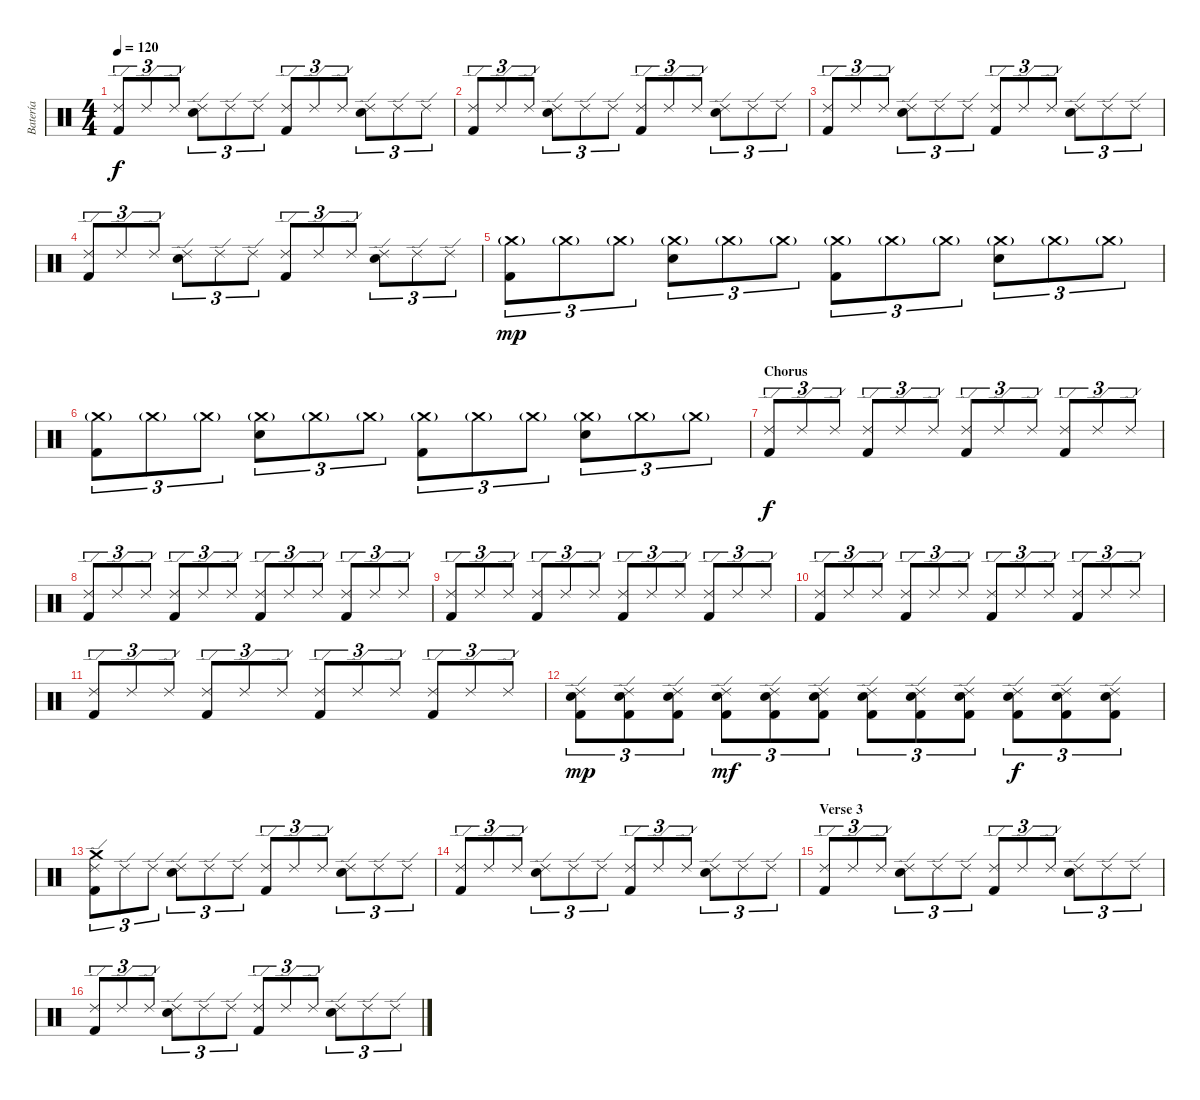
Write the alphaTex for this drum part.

\track ("Batería" "Batería") {instrument percussion}
\staff {score}
\articulation defaults
\ts (4 4)
\tempo 120
\clef neutral
\ks c
("Ride (edge) 2" "Kick (hit) 2").8{tu (3 2) dy f} "Ride (edge) 2".8{tu (3 2)} "Ride (edge) 2".8{tu (3 2)} ("Ride (edge) 2" "Electric Snare (hit)").8{tu (3 2)} "Ride (edge) 2".8{tu (3 2)} "Ride (edge) 2".8{tu (3 2)} ("Ride (edge) 2" "Kick (hit) 2").8{tu (3 2)} "Ride (edge) 2".8{tu (3 2)} "Ride (edge) 2".8{tu (3 2)} ("Ride (edge) 2" "Electric Snare (hit)").8{tu (3 2)} "Ride (edge) 2".8{tu (3 2)} "Ride (edge) 2".8{tu (3 2)} |
("Ride (edge) 2" "Kick (hit) 2").8{tu (3 2)} "Ride (edge) 2".8{tu (3 2)} "Ride (edge) 2".8{tu (3 2)} ("Ride (edge) 2" "Electric Snare (hit)").8{tu (3 2)} "Ride (edge) 2".8{tu (3 2)} "Ride (edge) 2".8{tu (3 2)} ("Ride (edge) 2" "Kick (hit) 2").8{tu (3 2)} "Ride (edge) 2".8{tu (3 2)} "Ride (edge) 2".8{tu (3 2)} ("Ride (edge) 2" "Electric Snare (hit)").8{tu (3 2)} "Ride (edge) 2".8{tu (3 2)} "Ride (edge) 2".8{tu (3 2)} |
("Ride (edge) 2" "Kick (hit) 2").8{tu (3 2)} "Ride (edge) 2".8{tu (3 2)} "Ride (edge) 2".8{tu (3 2)} ("Ride (edge) 2" "Electric Snare (hit)").8{tu (3 2)} "Ride (edge) 2".8{tu (3 2)} "Ride (edge) 2".8{tu (3 2)} ("Ride (edge) 2" "Kick (hit) 2").8{tu (3 2)} "Ride (edge) 2".8{tu (3 2)} "Ride (edge) 2".8{tu (3 2)} ("Ride (edge) 2" "Electric Snare (hit)").8{tu (3 2)} "Ride (edge) 2".8{tu (3 2)} "Ride (edge) 2".8{tu (3 2)} |
("Ride (edge) 2" "Kick (hit) 2").8{tu (3 2)} "Ride (edge) 2".8{tu (3 2)} "Ride (edge) 2".8{tu (3 2)} ("Ride (edge) 2" "Electric Snare (hit)").8{tu (3 2)} "Ride (edge) 2".8{tu (3 2)} "Ride (edge) 2".8{tu (3 2)} ("Ride (edge) 2" "Kick (hit) 2").8{tu (3 2)} "Ride (edge) 2".8{tu (3 2)} "Ride (edge) 2".8{tu (3 2)} ("Ride (edge) 2" "Electric Snare (hit)").8{tu (3 2)} "Ride (edge) 2".8{tu (3 2)} "Ride (edge) 2".8{tu (3 2)} |
("Crash medium (hit)"{g} "Kick (hit) 2").8{tu (3 2) dy mp} "Crash medium (hit)"{g}.8{tu (3 2)} "Crash medium (hit)"{g}.8{tu (3 2)} ("Crash medium (hit)"{g} "Electric Snare (hit)").8{tu (3 2)} "Crash medium (hit)"{g}.8{tu (3 2)} "Crash medium (hit)"{g}.8{tu (3 2)} ("Crash medium (hit)"{g} "Kick (hit) 2").8{tu (3 2)} "Crash medium (hit)"{g}.8{tu (3 2)} "Crash medium (hit)"{g}.8{tu (3 2)} ("Crash medium (hit)"{g} "Electric Snare (hit)").8{tu (3 2)} "Crash medium (hit)"{g}.8{tu (3 2)} "Crash medium (hit)"{g}.8{tu (3 2)} |
("Crash medium (hit)"{g} "Kick (hit) 2").8{tu (3 2)} "Crash medium (hit)"{g}.8{tu (3 2)} "Crash medium (hit)"{g}.8{tu (3 2)} ("Crash medium (hit)"{g} "Electric Snare (hit)").8{tu (3 2)} "Crash medium (hit)"{g}.8{tu (3 2)} "Crash medium (hit)"{g}.8{tu (3 2)} ("Crash medium (hit)"{g} "Kick (hit) 2").8{tu (3 2)} "Crash medium (hit)"{g}.8{tu (3 2)} "Crash medium (hit)"{g}.8{tu (3 2)} ("Crash medium (hit)"{g} "Electric Snare (hit)").8{tu (3 2)} "Crash medium (hit)"{g}.8{tu (3 2)} "Crash medium (hit)"{g}.8{tu (3 2)} |
\section ("" "Chorus")
("Ride (edge) 2" "Kick (hit) 2").8{tu (3 2) dy f} "Ride (edge) 2".8{tu (3 2)} "Ride (edge) 2".8{tu (3 2)} ("Ride (edge) 2" "Kick (hit) 2").8{tu (3 2)} "Ride (edge) 2".8{tu (3 2)} "Ride (edge) 2".8{tu (3 2)} ("Ride (edge) 2" "Kick (hit) 2").8{tu (3 2)} "Ride (edge) 2".8{tu (3 2)} "Ride (edge) 2".8{tu (3 2)} ("Ride (edge) 2" "Kick (hit) 2").8{tu (3 2)} "Ride (edge) 2".8{tu (3 2)} "Ride (edge) 2".8{tu (3 2)} |
("Ride (edge) 2" "Kick (hit) 2").8{tu (3 2)} "Ride (edge) 2".8{tu (3 2)} "Ride (edge) 2".8{tu (3 2)} ("Ride (edge) 2" "Kick (hit) 2").8{tu (3 2)} "Ride (edge) 2".8{tu (3 2)} "Ride (edge) 2".8{tu (3 2)} ("Ride (edge) 2" "Kick (hit) 2").8{tu (3 2)} "Ride (edge) 2".8{tu (3 2)} "Ride (edge) 2".8{tu (3 2)} ("Ride (edge) 2" "Kick (hit) 2").8{tu (3 2)} "Ride (edge) 2".8{tu (3 2)} "Ride (edge) 2".8{tu (3 2)} |
("Ride (edge) 2" "Kick (hit) 2").8{tu (3 2)} "Ride (edge) 2".8{tu (3 2)} "Ride (edge) 2".8{tu (3 2)} ("Ride (edge) 2" "Kick (hit) 2").8{tu (3 2)} "Ride (edge) 2".8{tu (3 2)} "Ride (edge) 2".8{tu (3 2)} ("Ride (edge) 2" "Kick (hit) 2").8{tu (3 2)} "Ride (edge) 2".8{tu (3 2)} "Ride (edge) 2".8{tu (3 2)} ("Ride (edge) 2" "Kick (hit) 2").8{tu (3 2)} "Ride (edge) 2".8{tu (3 2)} "Ride (edge) 2".8{tu (3 2)} |
("Ride (edge) 2" "Kick (hit) 2").8{tu (3 2)} "Ride (edge) 2".8{tu (3 2)} "Ride (edge) 2".8{tu (3 2)} ("Ride (edge) 2" "Kick (hit) 2").8{tu (3 2)} "Ride (edge) 2".8{tu (3 2)} "Ride (edge) 2".8{tu (3 2)} ("Ride (edge) 2" "Kick (hit) 2").8{tu (3 2)} "Ride (edge) 2".8{tu (3 2)} "Ride (edge) 2".8{tu (3 2)} ("Ride (edge) 2" "Kick (hit) 2").8{tu (3 2)} "Ride (edge) 2".8{tu (3 2)} "Ride (edge) 2".8{tu (3 2)} |
("Ride (edge) 2" "Kick (hit) 2").8{tu (3 2)} "Ride (edge) 2".8{tu (3 2)} "Ride (edge) 2".8{tu (3 2)} ("Ride (edge) 2" "Kick (hit) 2").8{tu (3 2)} "Ride (edge) 2".8{tu (3 2)} "Ride (edge) 2".8{tu (3 2)} ("Ride (edge) 2" "Kick (hit) 2").8{tu (3 2)} "Ride (edge) 2".8{tu (3 2)} "Ride (edge) 2".8{tu (3 2)} ("Ride (edge) 2" "Kick (hit) 2").8{tu (3 2)} "Ride (edge) 2".8{tu (3 2)} "Ride (edge) 2".8{tu (3 2)} |
("Ride (edge) 2" "Electric Snare (hit)" "Kick (hit) 2").8{tu (3 2) dy mp} ("Ride (edge) 2" "Electric Snare (hit)" "Kick (hit) 2").8{tu (3 2)} ("Ride (edge) 2" "Electric Snare (hit)" "Kick (hit) 2").8{tu (3 2)} ("Ride (edge) 2" "Electric Snare (hit)" "Kick (hit) 2").8{tu (3 2) dy mf} ("Ride (edge) 2" "Electric Snare (hit)" "Kick (hit) 2").8{tu (3 2)} ("Ride (edge) 2" "Electric Snare (hit)" "Kick (hit) 2").8{tu (3 2)} ("Ride (edge) 2" "Electric Snare (hit)" "Kick (hit) 2").8{tu (3 2)} ("Ride (edge) 2" "Electric Snare (hit)" "Kick (hit) 2").8{tu (3 2)} ("Ride (edge) 2" "Electric Snare (hit)" "Kick (hit) 2").8{tu (3 2)} ("Ride (edge) 2" "Electric Snare (hit)" "Kick (hit) 2").8{tu (3 2) dy f} ("Ride (edge) 2" "Electric Snare (hit)" "Kick (hit) 2").8{tu (3 2)} ("Ride (edge) 2" "Electric Snare (hit)" "Kick (hit) 2").8{tu (3 2)} |
("Ride (edge) 2" "Kick (hit) 2" "Crash medium (hit)").8{tu (3 2)} "Ride (edge) 2".8{tu (3 2)} "Ride (edge) 2".8{tu (3 2)} ("Ride (edge) 2" "Electric Snare (hit)").8{tu (3 2)} "Ride (edge) 2".8{tu (3 2)} "Ride (edge) 2".8{tu (3 2)} ("Ride (edge) 2" "Kick (hit) 2").8{tu (3 2)} "Ride (edge) 2".8{tu (3 2)} "Ride (edge) 2".8{tu (3 2)} ("Ride (edge) 2" "Electric Snare (hit)").8{tu (3 2)} "Ride (edge) 2".8{tu (3 2)} "Ride (edge) 2".8{tu (3 2)} |
("Ride (edge) 2" "Kick (hit) 2").8{tu (3 2)} "Ride (edge) 2".8{tu (3 2)} "Ride (edge) 2".8{tu (3 2)} ("Ride (edge) 2" "Electric Snare (hit)").8{tu (3 2)} "Ride (edge) 2".8{tu (3 2)} "Ride (edge) 2".8{tu (3 2)} ("Ride (edge) 2" "Kick (hit) 2").8{tu (3 2)} "Ride (edge) 2".8{tu (3 2)} "Ride (edge) 2".8{tu (3 2)} ("Ride (edge) 2" "Electric Snare (hit)").8{tu (3 2)} "Ride (edge) 2".8{tu (3 2)} "Ride (edge) 2".8{tu (3 2)} |
\section ("" "Verse 3")
("Ride (edge) 2" "Kick (hit) 2").8{tu (3 2)} "Ride (edge) 2".8{tu (3 2)} "Ride (edge) 2".8{tu (3 2)} ("Ride (edge) 2" "Electric Snare (hit)").8{tu (3 2)} "Ride (edge) 2".8{tu (3 2)} "Ride (edge) 2".8{tu (3 2)} ("Ride (edge) 2" "Kick (hit) 2").8{tu (3 2)} "Ride (edge) 2".8{tu (3 2)} "Ride (edge) 2".8{tu (3 2)} ("Ride (edge) 2" "Electric Snare (hit)").8{tu (3 2)} "Ride (edge) 2".8{tu (3 2)} "Ride (edge) 2".8{tu (3 2)} |
("Ride (edge) 2" "Kick (hit) 2").8{tu (3 2)} "Ride (edge) 2".8{tu (3 2)} "Ride (edge) 2".8{tu (3 2)} ("Ride (edge) 2" "Electric Snare (hit)").8{tu (3 2)} "Ride (edge) 2".8{tu (3 2)} "Ride (edge) 2".8{tu (3 2)} ("Ride (edge) 2" "Kick (hit) 2").8{tu (3 2)} "Ride (edge) 2".8{tu (3 2)} "Ride (edge) 2".8{tu (3 2)} ("Ride (edge) 2" "Electric Snare (hit)").8{tu (3 2)} "Ride (edge) 2".8{tu (3 2)} "Ride (edge) 2".8{tu (3 2)}
